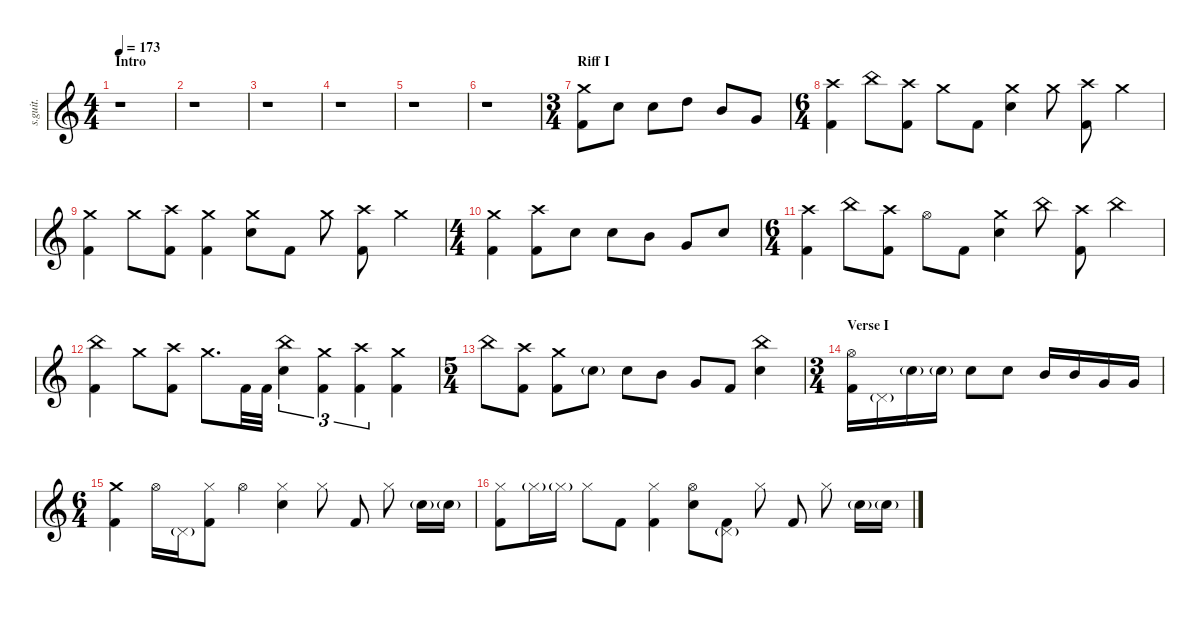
\defaultSystemsLayout 4
\hideDynamics
\bracketExtendMode nobrackets
\track ("II" "s.guit.") {instrument percussion}
\staff {score}
\articulation defaults
\ts (4 4)
\beaming (8 2 2 2 2)
\section ("" "Intro")
\tempo 173
\clef g2
\ks c
r.1{dy mf} |
r.1 |
r.1 |
r.1 |
r.1 |
r.1 |
\ts (3 4)
\beaming (8 2 2 2 2)
\section ("" "Riff I")
("Kick (hit) 2" "Crash medium (hit)").8{lyrics (0 "") lyrics (1 "") lyrics (2 "") lyrics (3 "") lyrics (4 "")} "Snare (hit) 2".8{lyrics (0 "") lyrics (1 "") lyrics (2 "") lyrics (3 "") lyrics (4 "")} "Snare (hit) 2".8{lyrics (0 "") lyrics (1 "") lyrics (2 "") lyrics (3 "") lyrics (4 "")} "High Tom (hit)".8{lyrics (0 "") lyrics (1 "") lyrics (2 "") lyrics (3 "") lyrics (4 "")} "Mid Tom (hit)".8{lyrics (0 "") lyrics (1 "") lyrics (2 "") lyrics (3 "") lyrics (4 "")} "Very Low Tom (hit)".8{lyrics (0 "") lyrics (1 "") lyrics (2 "") lyrics (3 "") lyrics (4 "")} |
\ts (6 4)
\beaming (8 2 2 2 2)
("Kick (hit) 2" "Crash high (hit)").4{lyrics (0 "") lyrics (1 "") lyrics (2 "") lyrics (3 "") lyrics (4 "")} "China (hit)".8{lyrics (0 "") lyrics (1 "") lyrics (2 "") lyrics (3 "") lyrics (4 "")} ("Kick (hit) 2" "Crash high (hit)").8{lyrics (0 "") lyrics (1 "") lyrics (2 "") lyrics (3 "") lyrics (4 "")} "Crash medium (hit)".8{lyrics (0 "") lyrics (1 "") lyrics (2 "") lyrics (3 "") lyrics (4 "")} "Kick (hit) 2".8{lyrics (0 "") lyrics (1 "") lyrics (2 "") lyrics (3 "") lyrics (4 "")} ("Crash medium (hit)" "Snare (hit) 2").4{lyrics (0 "") lyrics (1 "") lyrics (2 "") lyrics (3 "") lyrics (4 "")} "Crash medium (hit)".8{lyrics (0 "") lyrics (1 "") lyrics (2 "") lyrics (3 "") lyrics (4 "")} ("Kick (hit) 2" "Crash high (hit)").8{lyrics (0 "") lyrics (1 "") lyrics (2 "") lyrics (3 "") lyrics (4 "")} "Crash medium (hit)".4{lyrics (0 "") lyrics (1 "") lyrics (2 "") lyrics (3 "") lyrics (4 "")} |
("Crash medium (hit)" "Kick (hit) 2").4{lyrics (0 "") lyrics (1 "") lyrics (2 "") lyrics (3 "") lyrics (4 "")} "Crash medium (hit)".8{lyrics (0 "") lyrics (1 "") lyrics (2 "") lyrics (3 "") lyrics (4 "")} ("Kick (hit) 2" "Crash high (hit)").8{lyrics (0 "") lyrics (1 "") lyrics (2 "") lyrics (3 "") lyrics (4 "")} ("Kick (hit) 2" "Crash medium (hit)").4{lyrics (0 "") lyrics (1 "") lyrics (2 "") lyrics (3 "") lyrics (4 "")} ("Crash medium (hit)" "Snare (hit) 2").8{lyrics (0 "") lyrics (1 "") lyrics (2 "") lyrics (3 "") lyrics (4 "")} "Kick (hit) 2".8{lyrics (0 "") lyrics (1 "") lyrics (2 "") lyrics (3 "") lyrics (4 "")} "Crash medium (hit)".8{lyrics (0 "") lyrics (1 "") lyrics (2 "") lyrics (3 "") lyrics (4 "")} ("Kick (hit) 2" "Crash high (hit)").8{lyrics (0 "") lyrics (1 "") lyrics (2 "") lyrics (3 "") lyrics (4 "")} "Crash medium (hit)".4{lyrics (0 "") lyrics (1 "") lyrics (2 "") lyrics (3 "") lyrics (4 "")} |
\ts (4 4)
\beaming (8 2 2 2 2)
("Crash medium (hit)" "Kick (hit) 2").4{lyrics (0 "") lyrics (1 "") lyrics (2 "") lyrics (3 "") lyrics (4 "")} ("Kick (hit) 2" "Crash high (hit)").8{lyrics (0 "") lyrics (1 "") lyrics (2 "") lyrics (3 "") lyrics (4 "")} "Snare (hit) 2".8{lyrics (0 "") lyrics (1 "") lyrics (2 "") lyrics (3 "") lyrics (4 "")} "Snare (hit) 2".8{lyrics (0 "") lyrics (1 "") lyrics (2 "") lyrics (3 "") lyrics (4 "")} "Mid Tom (hit)".8{lyrics (0 "") lyrics (1 "") lyrics (2 "") lyrics (3 "") lyrics (4 "")} "Very Low Tom (hit)".8{lyrics (0 "") lyrics (1 "") lyrics (2 "") lyrics (3 "") lyrics (4 "")} "Snare (hit) 2".8{lyrics (0 "") lyrics (1 "") lyrics (2 "") lyrics (3 "") lyrics (4 "")} |
\ts (6 4)
\beaming (8 2 2 2 2)
("Kick (hit) 2" "Crash high (hit)").4{lyrics (0 "") lyrics (1 "") lyrics (2 "") lyrics (3 "") lyrics (4 "")} "China (hit)".8{lyrics (0 "") lyrics (1 "") lyrics (2 "") lyrics (3 "") lyrics (4 "")} ("Kick (hit) 2" "Crash high (hit)").8{lyrics (0 "") lyrics (1 "") lyrics (2 "") lyrics (3 "") lyrics (4 "")} "Hi-Hat (open)".8{lyrics (0 "") lyrics (1 "") lyrics (2 "") lyrics (3 "") lyrics (4 "")} "Kick (hit) 2".8{lyrics (0 "") lyrics (1 "") lyrics (2 "") lyrics (3 "") lyrics (4 "")} ("Crash medium (hit)" "Snare (hit) 2").4{lyrics (0 "") lyrics (1 "") lyrics (2 "") lyrics (3 "") lyrics (4 "")} "China (hit)".8{lyrics (0 "") lyrics (1 "") lyrics (2 "") lyrics (3 "") lyrics (4 "")} ("Kick (hit) 2" "Crash high (hit)").8{lyrics (0 "") lyrics (1 "") lyrics (2 "") lyrics (3 "") lyrics (4 "")} "China (hit)".4{lyrics (0 "") lyrics (1 "") lyrics (2 "") lyrics (3 "") lyrics (4 "")} |
("China (hit)" "Kick (hit) 2").4{lyrics (0 "") lyrics (1 "") lyrics (2 "") lyrics (3 "") lyrics (4 "")} "Crash medium (hit)".8{lyrics (0 "") lyrics (1 "") lyrics (2 "") lyrics (3 "") lyrics (4 "")} ("Kick (hit) 2" "Crash high (hit)").8{lyrics (0 "") lyrics (1 "") lyrics (2 "") lyrics (3 "") lyrics (4 "")} "Crash medium (hit)".8{d lyrics (0 "") lyrics (1 "") lyrics (2 "") lyrics (3 "") lyrics (4 "")} "Kick (hit) 2".32{lyrics (0 "") lyrics (1 "") lyrics (2 "") lyrics (3 "") lyrics (4 "")} "Kick (hit) 2".32{lyrics (0 "") lyrics (1 "") lyrics (2 "") lyrics (3 "") lyrics (4 "")} ("Snare (hit) 2" "China (hit)").4{tu (3 2) lyrics (0 "") lyrics (1 "") lyrics (2 "") lyrics (3 "") lyrics (4 "")} ("Kick (hit) 2" "Crash medium (hit)").4{tu (3 2) lyrics (0 "") lyrics (1 "") lyrics (2 "") lyrics (3 "") lyrics (4 "")} ("Kick (hit) 2" "Crash high (hit)").4{tu (3 2) lyrics (0 "") lyrics (1 "") lyrics (2 "") lyrics (3 "") lyrics (4 "")} ("Kick (hit) 2" "Crash medium (hit)").4{lyrics (0 "") lyrics (1 "") lyrics (2 "") lyrics (3 "") lyrics (4 "")} |
\ts (5 4)
\beaming (8 2 2 2 2)
"China (hit)".8{lyrics (0 "") lyrics (1 "") lyrics (2 "") lyrics (3 "") lyrics (4 "")} ("Kick (hit) 2" "Crash high (hit)").8{lyrics (0 "") lyrics (1 "") lyrics (2 "") lyrics (3 "") lyrics (4 "")} ("Kick (hit) 2" "Crash medium (hit)").8{lyrics (0 "") lyrics (1 "") lyrics (2 "") lyrics (3 "") lyrics (4 "")} "Snare (hit) 2"{g}.8{lyrics (0 "") lyrics (1 "") lyrics (2 "") lyrics (3 "") lyrics (4 "")} "Snare (hit) 2".8{lyrics (0 "") lyrics (1 "") lyrics (2 "") lyrics (3 "") lyrics (4 "")} "Mid Tom (hit)".8{lyrics (0 "") lyrics (1 "") lyrics (2 "") lyrics (3 "") lyrics (4 "")} "Very Low Tom (hit)".8{lyrics (0 "") lyrics (1 "") lyrics (2 "") lyrics (3 "") lyrics (4 "")} "Kick (hit) 2".8{lyrics (0 "") lyrics (1 "") lyrics (2 "") lyrics (3 "") lyrics (4 "")} ("Snare (hit) 2" "China (hit)").4{lyrics (0 "") lyrics (1 "") lyrics (2 "") lyrics (3 "") lyrics (4 "")} |
\ts (3 4)
\beaming (8 2 2 2 2)
\section ("" "Verse I")
("Kick (hit) 2" "Hi-Hat (open)").16{lyrics (0 "") lyrics (1 "") lyrics (2 "") lyrics (3 "") lyrics (4 "")} "Pedal Hi-Hat (hit)"{g}.16{lyrics (0 "") lyrics (1 "") lyrics (2 "") lyrics (3 "") lyrics (4 "") dy p} "Snare (hit) 2"{g}.16{lyrics (0 "") lyrics (1 "") lyrics (2 "") lyrics (3 "") lyrics (4 "") dy mf} "Snare (hit) 2"{g}.16{lyrics (0 "") lyrics (1 "") lyrics (2 "") lyrics (3 "") lyrics (4 "")} "Snare (hit) 2".8{lyrics (0 "") lyrics (1 "") lyrics (2 "") lyrics (3 "") lyrics (4 "")} "Snare (hit) 2".8{lyrics (0 "") lyrics (1 "") lyrics (2 "") lyrics (3 "") lyrics (4 "")} "Mid Tom (hit)".16{lyrics (0 "") lyrics (1 "") lyrics (2 "") lyrics (3 "") lyrics (4 "")} "Mid Tom (hit)".16{lyrics (0 "") lyrics (1 "") lyrics (2 "") lyrics (3 "") lyrics (4 "")} "Very Low Tom (hit)".16{lyrics (0 "") lyrics (1 "") lyrics (2 "") lyrics (3 "") lyrics (4 "")} "Very Low Tom (hit)".16{lyrics (0 "") lyrics (1 "") lyrics (2 "") lyrics (3 "") lyrics (4 "")} |
\ts (6 4)
\beaming (8 2 2 2 2)
("Crash medium (hit)" "Kick (hit) 2").4{lyrics (0 "") lyrics (1 "") lyrics (2 "") lyrics (3 "") lyrics (4 "")} "Hi-Hat (open)".16{lyrics (0 "") lyrics (1 "") lyrics (2 "") lyrics (3 "") lyrics (4 "")} "Pedal Hi-Hat (hit)"{g}.16{lyrics (0 "") lyrics (1 "") lyrics (2 "") lyrics (3 "") lyrics (4 "") dy p} ("Kick (hit) 2" "Hi-Hat (closed)").8{lyrics (0 "") lyrics (1 "") lyrics (2 "") lyrics (3 "") lyrics (4 "") dy mf} "Hi-Hat (open)".4{lyrics (0 "") lyrics (1 "") lyrics (2 "") lyrics (3 "") lyrics (4 "")} ("Snare (hit) 2" "Hi-Hat (closed)").4{lyrics (0 "") lyrics (1 "") lyrics (2 "") lyrics (3 "") lyrics (4 "")} "Hi-Hat (closed)".8{lyrics (0 "") lyrics (1 "") lyrics (2 "") lyrics (3 "") lyrics (4 "")} "Kick (hit) 2".8{lyrics (0 "") lyrics (1 "") lyrics (2 "") lyrics (3 "") lyrics (4 "")} "Hi-Hat (closed)".8{lyrics (0 "") lyrics (1 "") lyrics (2 "") lyrics (3 "") lyrics (4 "")} "Snare (hit) 2"{g}.16{lyrics (0 "") lyrics (1 "") lyrics (2 "") lyrics (3 "") lyrics (4 "") dy p} "Snare (hit) 2"{g}.16{lyrics (0 "") lyrics (1 "") lyrics (2 "") lyrics (3 "") lyrics (4 "")} |
("Hi-Hat (closed)" "Kick (hit) 2").8{lyrics (0 "") lyrics (1 "") lyrics (2 "") lyrics (3 "") lyrics (4 "") dy mf} "Hi-Hat (closed)"{g}.16{lyrics (0 "") lyrics (1 "") lyrics (2 "") lyrics (3 "") lyrics (4 "")} "Hi-Hat (closed)"{g}.16{lyrics (0 "") lyrics (1 "") lyrics (2 "") lyrics (3 "") lyrics (4 "")} "Hi-Hat (closed)".8{lyrics (0 "") lyrics (1 "") lyrics (2 "") lyrics (3 "") lyrics (4 "")} "Kick (hit) 2".8{lyrics (0 "") lyrics (1 "") lyrics (2 "") lyrics (3 "") lyrics (4 "")} ("Hi-Hat (closed)" "Kick (hit) 2").4{lyrics (0 "") lyrics (1 "") lyrics (2 "") lyrics (3 "") lyrics (4 "")} ("Hi-Hat (open)" "Snare (hit) 2").8{lyrics (0 "") lyrics (1 "") lyrics (2 "") lyrics (3 "") lyrics (4 "")} ("Pedal Hi-Hat (hit)"{g} "Kick (hit) 2").8{lyrics (0 "") lyrics (1 "") lyrics (2 "") lyrics (3 "") lyrics (4 "")} "Hi-Hat (closed)".8{lyrics (0 "") lyrics (1 "") lyrics (2 "") lyrics (3 "") lyrics (4 "")} "Kick (hit) 2".8{lyrics (0 "") lyrics (1 "") lyrics (2 "") lyrics (3 "") lyrics (4 "")} "Hi-Hat (closed)".8{lyrics (0 "") lyrics (1 "") lyrics (2 "") lyrics (3 "") lyrics (4 "")} "Snare (hit) 2"{g}.16{lyrics (0 "") lyrics (1 "") lyrics (2 "") lyrics (3 "") lyrics (4 "") dy p} "Snare (hit) 2"{g}.16{lyrics (0 "") lyrics (1 "") lyrics (2 "") lyrics (3 "") lyrics (4 "")}
